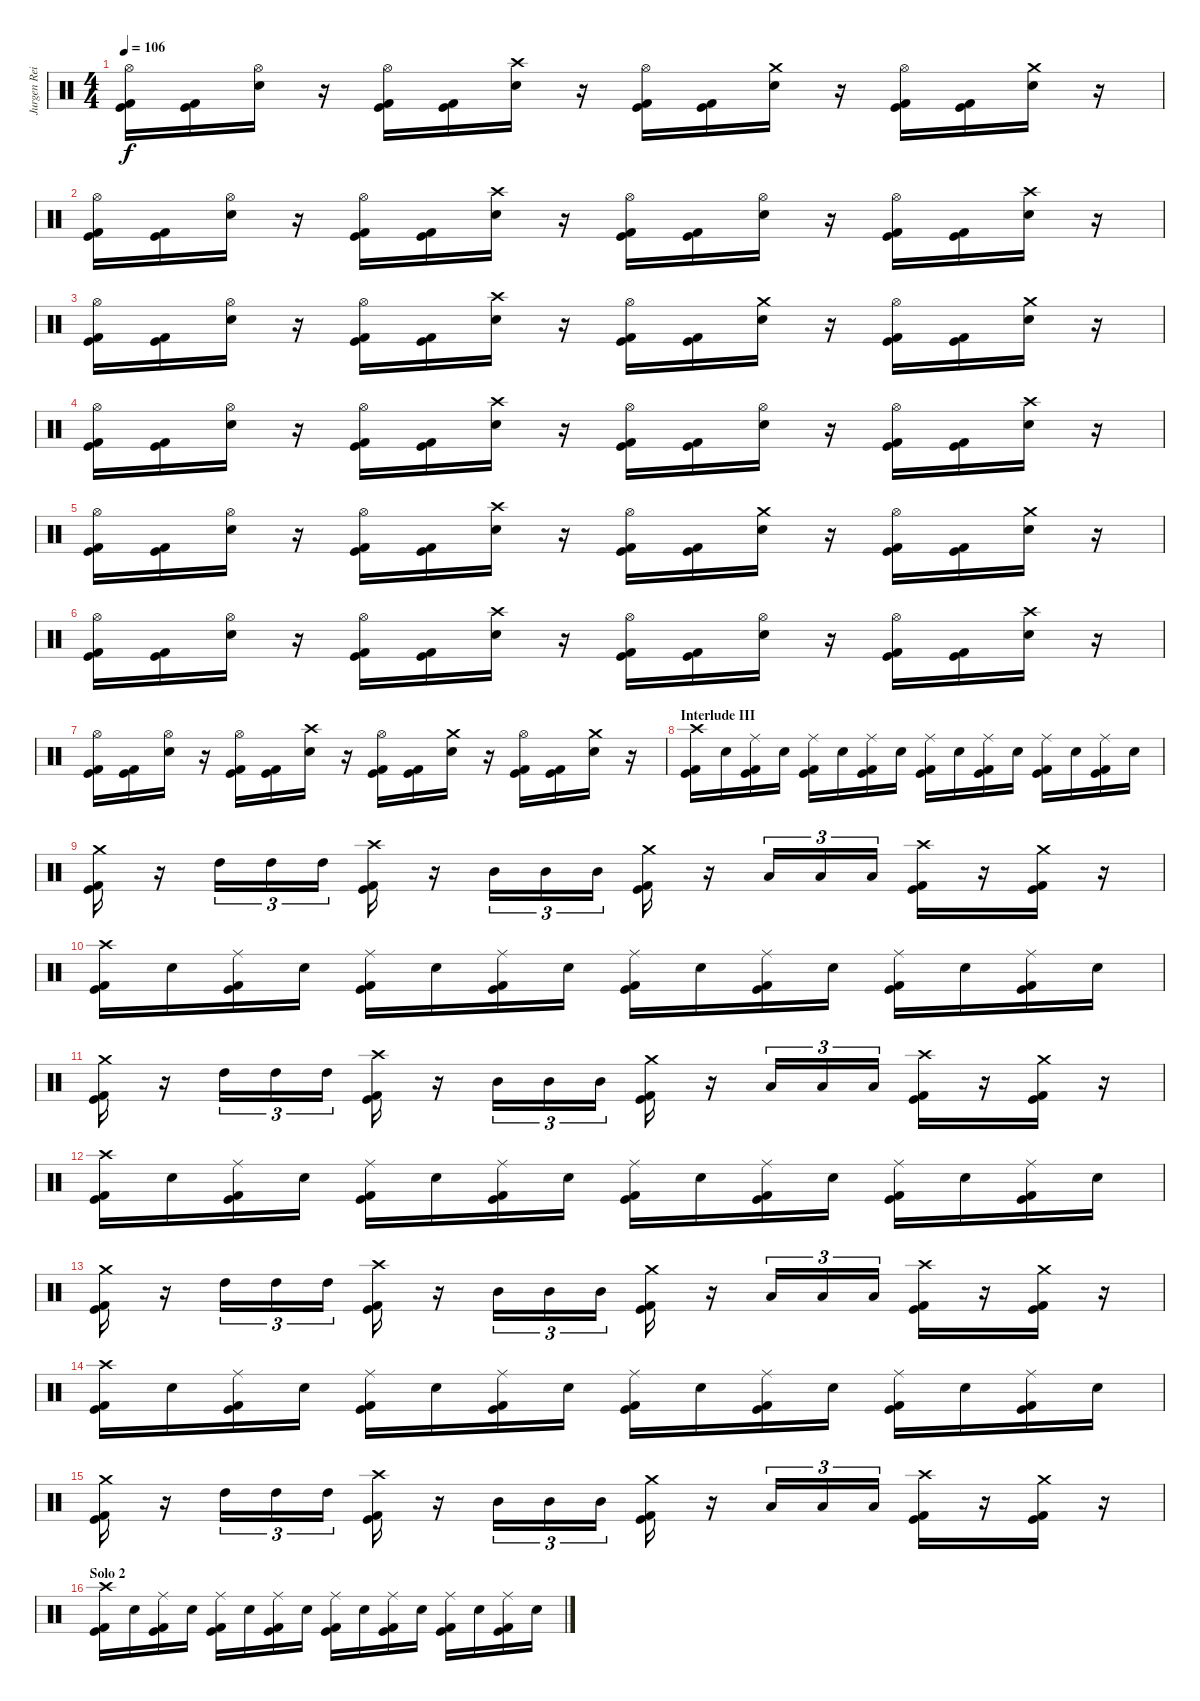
\track ("Jurgen Reil" "Jurgen Rei") {instrument percussion}
\staff {score}
\articulation defaults
\ts (4 4)
\tempo 106
\clef neutral
\ks c
("Hi-Hat (open)" "Kick (hit)" "Kick (hit) 2").16{dy f} ("Kick (hit)" "Kick (hit) 2").16 ("Hi-Hat (open)" "Electric Snare (hit)").16 r.16 ("Hi-Hat (open)" "Kick (hit)" "Kick (hit) 2").16 ("Kick (hit)" "Kick (hit) 2").16 ("Crash high (hit)" "Electric Snare (hit)").16 r.16 ("Hi-Hat (open)" "Kick (hit)" "Kick (hit) 2").16 ("Kick (hit)" "Kick (hit) 2").16 ("Crash medium (hit)" "Electric Snare (hit)").16 r.16 ("Hi-Hat (open)" "Kick (hit)" "Kick (hit) 2").16 ("Kick (hit)" "Kick (hit) 2").16 ("Crash medium (hit)" "Electric Snare (hit)").16 r.16 |
("Hi-Hat (open)" "Kick (hit)" "Kick (hit) 2").16 ("Kick (hit)" "Kick (hit) 2").16 ("Hi-Hat (open)" "Electric Snare (hit)").16 r.16 ("Hi-Hat (open)" "Kick (hit)" "Kick (hit) 2").16 ("Kick (hit)" "Kick (hit) 2").16 ("Crash high (hit)" "Electric Snare (hit)").16 r.16 ("Hi-Hat (open)" "Kick (hit)" "Kick (hit) 2").16 ("Kick (hit)" "Kick (hit) 2").16 ("Hi-Hat (open)" "Electric Snare (hit)").16 r.16 ("Hi-Hat (open)" "Kick (hit)" "Kick (hit) 2").16 ("Kick (hit)" "Kick (hit) 2").16 ("Crash high (hit)" "Electric Snare (hit)").16 r.16 |
("Hi-Hat (open)" "Kick (hit)" "Kick (hit) 2").16 ("Kick (hit)" "Kick (hit) 2").16 ("Hi-Hat (open)" "Electric Snare (hit)").16 r.16 ("Hi-Hat (open)" "Kick (hit)" "Kick (hit) 2").16 ("Kick (hit)" "Kick (hit) 2").16 ("Crash high (hit)" "Electric Snare (hit)").16 r.16 ("Hi-Hat (open)" "Kick (hit)" "Kick (hit) 2").16 ("Kick (hit)" "Kick (hit) 2").16 ("Crash medium (hit)" "Electric Snare (hit)").16 r.16 ("Hi-Hat (open)" "Kick (hit)" "Kick (hit) 2").16 ("Kick (hit)" "Kick (hit) 2").16 ("Crash medium (hit)" "Electric Snare (hit)").16 r.16 |
("Hi-Hat (open)" "Kick (hit)" "Kick (hit) 2").16 ("Kick (hit)" "Kick (hit) 2").16 ("Hi-Hat (open)" "Electric Snare (hit)").16 r.16 ("Hi-Hat (open)" "Kick (hit)" "Kick (hit) 2").16 ("Kick (hit)" "Kick (hit) 2").16 ("Crash high (hit)" "Electric Snare (hit)").16 r.16 ("Hi-Hat (open)" "Kick (hit)" "Kick (hit) 2").16 ("Kick (hit)" "Kick (hit) 2").16 ("Hi-Hat (open)" "Electric Snare (hit)").16 r.16 ("Hi-Hat (open)" "Kick (hit)" "Kick (hit) 2").16 ("Kick (hit)" "Kick (hit) 2").16 ("Crash high (hit)" "Electric Snare (hit)").16 r.16 |
("Hi-Hat (open)" "Kick (hit)" "Kick (hit) 2").16 ("Kick (hit)" "Kick (hit) 2").16 ("Hi-Hat (open)" "Electric Snare (hit)").16 r.16 ("Hi-Hat (open)" "Kick (hit)" "Kick (hit) 2").16 ("Kick (hit)" "Kick (hit) 2").16 ("Crash high (hit)" "Electric Snare (hit)").16 r.16 ("Hi-Hat (open)" "Kick (hit)" "Kick (hit) 2").16 ("Kick (hit)" "Kick (hit) 2").16 ("Crash medium (hit)" "Electric Snare (hit)").16 r.16 ("Hi-Hat (open)" "Kick (hit)" "Kick (hit) 2").16 ("Kick (hit)" "Kick (hit) 2").16 ("Crash medium (hit)" "Electric Snare (hit)").16 r.16 |
("Hi-Hat (open)" "Kick (hit)" "Kick (hit) 2").16 ("Kick (hit)" "Kick (hit) 2").16 ("Hi-Hat (open)" "Electric Snare (hit)").16 r.16 ("Hi-Hat (open)" "Kick (hit)" "Kick (hit) 2").16 ("Kick (hit)" "Kick (hit) 2").16 ("Crash high (hit)" "Electric Snare (hit)").16 r.16 ("Hi-Hat (open)" "Kick (hit)" "Kick (hit) 2").16 ("Kick (hit)" "Kick (hit) 2").16 ("Hi-Hat (open)" "Electric Snare (hit)").16 r.16 ("Hi-Hat (open)" "Kick (hit)" "Kick (hit) 2").16 ("Kick (hit)" "Kick (hit) 2").16 ("Crash high (hit)" "Electric Snare (hit)").16 r.16 |
("Hi-Hat (open)" "Kick (hit)" "Kick (hit) 2").16 ("Kick (hit)" "Kick (hit) 2").16 ("Hi-Hat (open)" "Electric Snare (hit)").16 r.16 ("Hi-Hat (open)" "Kick (hit)" "Kick (hit) 2").16 ("Kick (hit)" "Kick (hit) 2").16 ("Crash high (hit)" "Electric Snare (hit)").16 r.16 ("Hi-Hat (open)" "Kick (hit)" "Kick (hit) 2").16 ("Kick (hit)" "Kick (hit) 2").16 ("Crash medium (hit)" "Electric Snare (hit)").16 r.16 ("Hi-Hat (open)" "Kick (hit)" "Kick (hit) 2").16 ("Kick (hit)" "Kick (hit) 2").16 ("Crash medium (hit)" "Electric Snare (hit)").16 r.16 |
\section ("" "Interlude III")
("Crash high (hit)" "Kick (hit)" "Kick (hit) 2").16 "Electric Snare (hit)".16 ("Ride (middle)" "Kick (hit)" "Kick (hit) 2").16 "Electric Snare (hit)".16 ("Ride (middle)" "Kick (hit)" "Kick (hit) 2").16 "Electric Snare (hit)".16 ("Ride (middle)" "Kick (hit)" "Kick (hit) 2").16 "Electric Snare (hit)".16 ("Ride (middle)" "Kick (hit)" "Kick (hit) 2").16 "Electric Snare (hit)".16 ("Ride (middle)" "Kick (hit)" "Kick (hit) 2").16 "Electric Snare (hit)".16 ("Ride (middle)" "Kick (hit)" "Kick (hit) 2").16 "Electric Snare (hit)".16 ("Ride (middle)" "Kick (hit)" "Kick (hit) 2").16 "Electric Snare (hit)".16 |
("Crash medium (hit)" "Kick (hit)" "Kick (hit) 2").16 r.16 "High Tom (hit)".16{tu (3 2)} "High Tom (hit)".16{tu (3 2)} "High Tom (hit)".16{tu (3 2)} ("Crash high (hit)" "Kick (hit)" "Kick (hit) 2").16 r.16 "Mid Tom (hit)".16{tu (3 2)} "Mid Tom (hit)".16{tu (3 2)} "Mid Tom (hit)".16{tu (3 2)} ("Crash medium (hit)" "Kick (hit)" "Kick (hit) 2").16 r.16 "Low Tom (hit)".16{tu (3 2)} "Low Tom (hit)".16{tu (3 2)} "Low Tom (hit)".16{tu (3 2)} ("Crash high (hit)" "Kick (hit)" "Kick (hit) 2").16 r.16 ("Crash medium (hit)" "Kick (hit)" "Kick (hit) 2").16 r.16 |
("Crash high (hit)" "Kick (hit)" "Kick (hit) 2").16 "Electric Snare (hit)".16 ("Ride (middle)" "Kick (hit)" "Kick (hit) 2").16 "Electric Snare (hit)".16 ("Ride (middle)" "Kick (hit)" "Kick (hit) 2").16 "Electric Snare (hit)".16 ("Ride (middle)" "Kick (hit)" "Kick (hit) 2").16 "Electric Snare (hit)".16 ("Ride (middle)" "Kick (hit)" "Kick (hit) 2").16 "Electric Snare (hit)".16 ("Ride (middle)" "Kick (hit)" "Kick (hit) 2").16 "Electric Snare (hit)".16 ("Ride (middle)" "Kick (hit)" "Kick (hit) 2").16 "Electric Snare (hit)".16 ("Ride (middle)" "Kick (hit)" "Kick (hit) 2").16 "Electric Snare (hit)".16 |
("Crash medium (hit)" "Kick (hit)" "Kick (hit) 2").16 r.16 "High Tom (hit)".16{tu (3 2)} "High Tom (hit)".16{tu (3 2)} "High Tom (hit)".16{tu (3 2)} ("Crash high (hit)" "Kick (hit)" "Kick (hit) 2").16 r.16 "Mid Tom (hit)".16{tu (3 2)} "Mid Tom (hit)".16{tu (3 2)} "Mid Tom (hit)".16{tu (3 2)} ("Crash medium (hit)" "Kick (hit)" "Kick (hit) 2").16 r.16 "Low Tom (hit)".16{tu (3 2)} "Low Tom (hit)".16{tu (3 2)} "Low Tom (hit)".16{tu (3 2)} ("Crash high (hit)" "Kick (hit)" "Kick (hit) 2").16 r.16 ("Crash medium (hit)" "Kick (hit)" "Kick (hit) 2").16 r.16 |
("Crash high (hit)" "Kick (hit)" "Kick (hit) 2").16 "Electric Snare (hit)".16 ("Ride (middle)" "Kick (hit)" "Kick (hit) 2").16 "Electric Snare (hit)".16 ("Ride (middle)" "Kick (hit)" "Kick (hit) 2").16 "Electric Snare (hit)".16 ("Ride (middle)" "Kick (hit)" "Kick (hit) 2").16 "Electric Snare (hit)".16 ("Ride (middle)" "Kick (hit)" "Kick (hit) 2").16 "Electric Snare (hit)".16 ("Ride (middle)" "Kick (hit)" "Kick (hit) 2").16 "Electric Snare (hit)".16 ("Ride (middle)" "Kick (hit)" "Kick (hit) 2").16 "Electric Snare (hit)".16 ("Ride (middle)" "Kick (hit)" "Kick (hit) 2").16 "Electric Snare (hit)".16 |
("Crash medium (hit)" "Kick (hit)" "Kick (hit) 2").16 r.16 "High Tom (hit)".16{tu (3 2)} "High Tom (hit)".16{tu (3 2)} "High Tom (hit)".16{tu (3 2)} ("Crash high (hit)" "Kick (hit)" "Kick (hit) 2").16 r.16 "Mid Tom (hit)".16{tu (3 2)} "Mid Tom (hit)".16{tu (3 2)} "Mid Tom (hit)".16{tu (3 2)} ("Crash medium (hit)" "Kick (hit)" "Kick (hit) 2").16 r.16 "Low Tom (hit)".16{tu (3 2)} "Low Tom (hit)".16{tu (3 2)} "Low Tom (hit)".16{tu (3 2)} ("Crash high (hit)" "Kick (hit)" "Kick (hit) 2").16 r.16 ("Crash medium (hit)" "Kick (hit)" "Kick (hit) 2").16 r.16 |
("Crash high (hit)" "Kick (hit)" "Kick (hit) 2").16 "Electric Snare (hit)".16 ("Ride (middle)" "Kick (hit)" "Kick (hit) 2").16 "Electric Snare (hit)".16 ("Ride (middle)" "Kick (hit)" "Kick (hit) 2").16 "Electric Snare (hit)".16 ("Ride (middle)" "Kick (hit)" "Kick (hit) 2").16 "Electric Snare (hit)".16 ("Ride (middle)" "Kick (hit)" "Kick (hit) 2").16 "Electric Snare (hit)".16 ("Ride (middle)" "Kick (hit)" "Kick (hit) 2").16 "Electric Snare (hit)".16 ("Ride (middle)" "Kick (hit)" "Kick (hit) 2").16 "Electric Snare (hit)".16 ("Ride (middle)" "Kick (hit)" "Kick (hit) 2").16 "Electric Snare (hit)".16 |
("Crash medium (hit)" "Kick (hit)" "Kick (hit) 2").16 r.16 "High Tom (hit)".16{tu (3 2)} "High Tom (hit)".16{tu (3 2)} "High Tom (hit)".16{tu (3 2)} ("Crash high (hit)" "Kick (hit)" "Kick (hit) 2").16 r.16 "Mid Tom (hit)".16{tu (3 2)} "Mid Tom (hit)".16{tu (3 2)} "Mid Tom (hit)".16{tu (3 2)} ("Crash medium (hit)" "Kick (hit)" "Kick (hit) 2").16 r.16 "Low Tom (hit)".16{tu (3 2)} "Low Tom (hit)".16{tu (3 2)} "Low Tom (hit)".16{tu (3 2)} ("Crash high (hit)" "Kick (hit)" "Kick (hit) 2").16 r.16 ("Crash medium (hit)" "Kick (hit)" "Kick (hit) 2").16 r.16 |
\section ("" "Solo 2")
("Crash high (hit)" "Kick (hit)" "Kick (hit) 2").16 "Electric Snare (hit)".16 ("Ride (middle)" "Kick (hit)" "Kick (hit) 2").16 "Electric Snare (hit)".16 ("Ride (middle)" "Kick (hit)" "Kick (hit) 2").16 "Electric Snare (hit)".16 ("Ride (middle)" "Kick (hit)" "Kick (hit) 2").16 "Electric Snare (hit)".16 ("Ride (middle)" "Kick (hit)" "Kick (hit) 2").16 "Electric Snare (hit)".16 ("Ride (middle)" "Kick (hit)" "Kick (hit) 2").16 "Electric Snare (hit)".16 ("Ride (middle)" "Kick (hit)" "Kick (hit) 2").16 "Electric Snare (hit)".16 ("Ride (middle)" "Kick (hit)" "Kick (hit) 2").16 "Electric Snare (hit)".16
